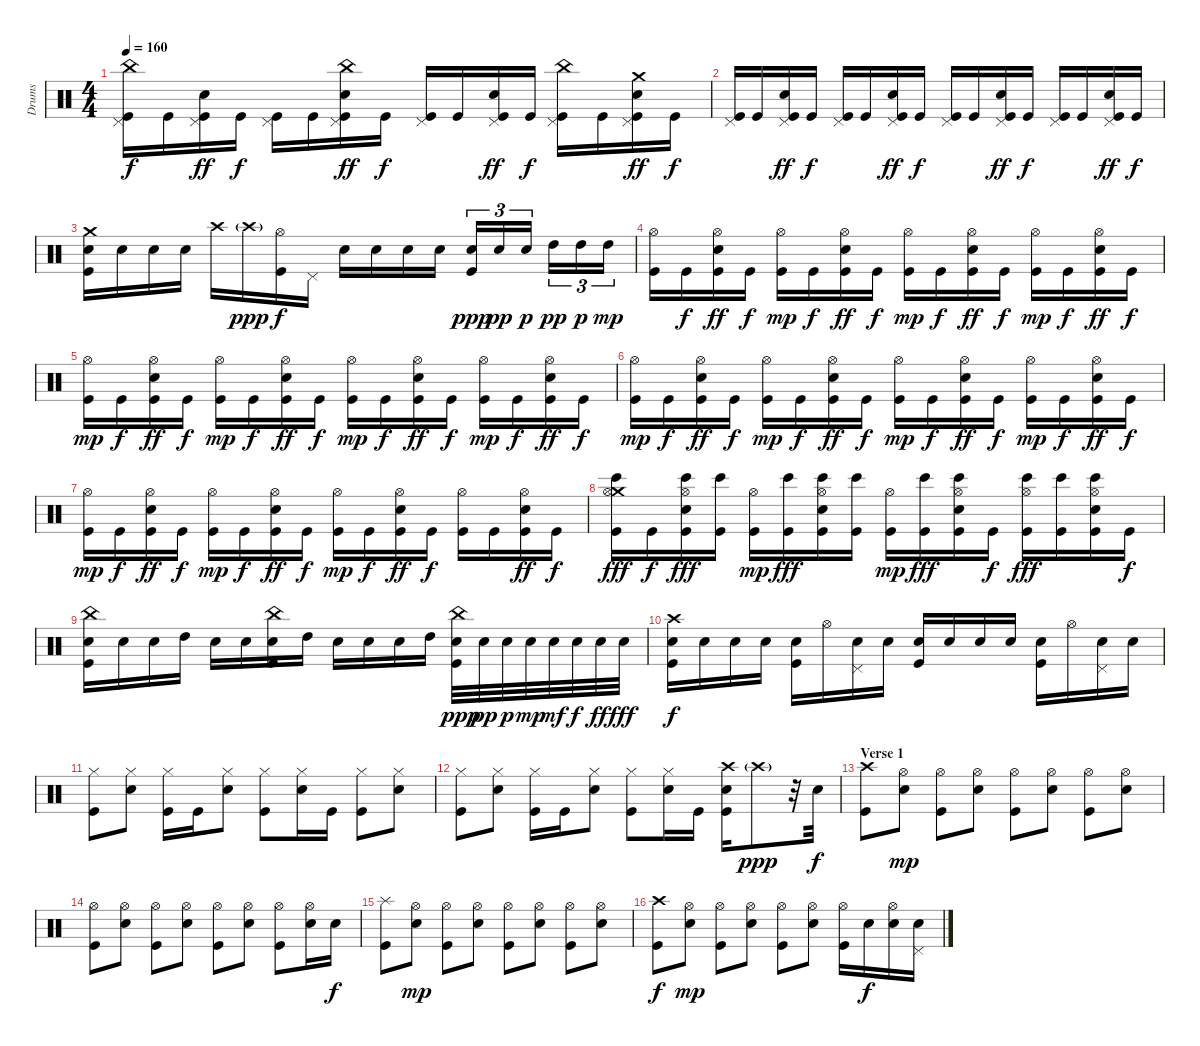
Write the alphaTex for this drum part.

\track ("Drums" "Drums") {instrument percussion}
\staff {score}
\articulation defaults
\ts (4 4)
\tempo 160
\clef neutral
\ks c
("China (hit)" "Pedal Hi-Hat (hit)" "Kick (hit)").16{dy f} "Kick (hit)".16 ("Pedal Hi-Hat (hit)" "Electric Snare (hit)" "Kick (hit)").16{dy ff} "Kick (hit)".16{dy f} ("Pedal Hi-Hat (hit)" "Kick (hit)").16 "Kick (hit)".16 ("China (hit)" "Pedal Hi-Hat (hit)" "Electric Snare (hit)" "Kick (hit)").16{dy ff} "Kick (hit)".16{dy f} ("Pedal Hi-Hat (hit)" "Kick (hit)").16 "Kick (hit)".16 ("Pedal Hi-Hat (hit)" "Electric Snare (hit)" "Kick (hit)").16{dy ff} "Kick (hit)".16{dy f} ("China (hit)" "Pedal Hi-Hat (hit)" "Kick (hit)").16 "Kick (hit)".16 ("Crash medium (hit)" "Pedal Hi-Hat (hit)" "Electric Snare (hit)" "Kick (hit)").16{dy ff} "Kick (hit)".16{dy f} |
("Pedal Hi-Hat (hit)" "Kick (hit)").16 "Kick (hit)".16 ("Pedal Hi-Hat (hit)" "Electric Snare (hit)" "Kick (hit)").16{dy ff} "Kick (hit)".16{dy f} ("Pedal Hi-Hat (hit)" "Kick (hit)").16 "Kick (hit)".16 ("Pedal Hi-Hat (hit)" "Electric Snare (hit)" "Kick (hit)").16{dy ff} "Kick (hit)".16{dy f} ("Pedal Hi-Hat (hit)" "Kick (hit)").16 "Kick (hit)".16 ("Pedal Hi-Hat (hit)" "Electric Snare (hit)" "Kick (hit)").16{dy ff} "Kick (hit)".16{dy f} ("Pedal Hi-Hat (hit)" "Kick (hit)").16 "Kick (hit)".16 ("Pedal Hi-Hat (hit)" "Electric Snare (hit)" "Kick (hit)").16{dy ff} "Kick (hit)".16{dy f} |
("Crash medium (hit)" "Electric Snare (hit)" "Kick (hit)").16 "Electric Snare (hit)".16 "Electric Snare (hit)".16 "Electric Snare (hit)".16 "Crash high (hit)".16 "Crash high (hit)"{g}.16{dy ppp} ("Hi-Hat (open)" "Kick (hit)").16{dy f} "Pedal Hi-Hat (hit)".16 "Electric Snare (hit)".16 "Electric Snare (hit)".16 "Electric Snare (hit)".16 "Electric Snare (hit)".16 ("Electric Snare (hit)" "Kick (hit)").16{tu (3 2) dy ppp} "Electric Snare (hit)".16{tu (3 2) dy pp} "Electric Snare (hit)".16{tu (3 2) dy p} "High Tom (hit)".16{tu (3 2) dy pp} "High Tom (hit)".16{tu (3 2) dy p} "High Tom (hit)".16{tu (3 2) dy mp} |
("Hi-Hat (open)" "Kick (hit)").16 "Kick (hit)".16{dy f} ("Hi-Hat (open)" "Electric Snare (hit)" "Kick (hit)").16{dy ff} "Kick (hit)".16{dy f} ("Hi-Hat (open)" "Kick (hit)").16{dy mp} "Kick (hit)".16{dy f} ("Hi-Hat (open)" "Electric Snare (hit)" "Kick (hit)").16{dy ff} "Kick (hit)".16{dy f} ("Hi-Hat (open)" "Kick (hit)").16{dy mp} "Kick (hit)".16{dy f} ("Hi-Hat (open)" "Electric Snare (hit)" "Kick (hit)").16{dy ff} "Kick (hit)".16{dy f} ("Hi-Hat (open)" "Kick (hit)").16{dy mp} "Kick (hit)".16{dy f} ("Hi-Hat (open)" "Electric Snare (hit)" "Kick (hit)").16{dy ff} "Kick (hit)".16{dy f} |
("Hi-Hat (open)" "Kick (hit)").16{dy mp} "Kick (hit)".16{dy f} ("Hi-Hat (open)" "Electric Snare (hit)" "Kick (hit)").16{dy ff} "Kick (hit)".16{dy f} ("Hi-Hat (open)" "Kick (hit)").16{dy mp} "Kick (hit)".16{dy f} ("Hi-Hat (open)" "Electric Snare (hit)" "Kick (hit)").16{dy ff} "Kick (hit)".16{dy f} ("Hi-Hat (open)" "Kick (hit)").16{dy mp} "Kick (hit)".16{dy f} ("Hi-Hat (open)" "Electric Snare (hit)" "Kick (hit)").16{dy ff} "Kick (hit)".16{dy f} ("Hi-Hat (open)" "Kick (hit)").16{dy mp} "Kick (hit)".16{dy f} ("Hi-Hat (open)" "Electric Snare (hit)" "Kick (hit)").16{dy ff} "Kick (hit)".16{dy f} |
("Hi-Hat (open)" "Kick (hit)").16{dy mp} "Kick (hit)".16{dy f} ("Hi-Hat (open)" "Electric Snare (hit)" "Kick (hit)").16{dy ff} "Kick (hit)".16{dy f} ("Hi-Hat (open)" "Kick (hit)").16{dy mp} "Kick (hit)".16{dy f} ("Hi-Hat (open)" "Electric Snare (hit)" "Kick (hit)").16{dy ff} "Kick (hit)".16{dy f} ("Hi-Hat (open)" "Kick (hit)").16{dy mp} "Kick (hit)".16{dy f} ("Hi-Hat (open)" "Electric Snare (hit)" "Kick (hit)").16{dy ff} "Kick (hit)".16{dy f} ("Hi-Hat (open)" "Kick (hit)").16{dy mp} "Kick (hit)".16{dy f} ("Hi-Hat (open)" "Electric Snare (hit)" "Kick (hit)").16{dy ff} "Kick (hit)".16{dy f} |
("Hi-Hat (open)" "Kick (hit)").16{dy mp} "Kick (hit)".16{dy f} ("Hi-Hat (open)" "Electric Snare (hit)" "Kick (hit)").16{dy ff} "Kick (hit)".16{dy f} ("Hi-Hat (open)" "Kick (hit)").16{dy mp} "Kick (hit)".16{dy f} ("Hi-Hat (open)" "Electric Snare (hit)" "Kick (hit)").16{dy ff} "Kick (hit)".16{dy f} ("Hi-Hat (open)" "Kick (hit)").16{dy mp} "Kick (hit)".16{dy f} ("Hi-Hat (open)" "Electric Snare (hit)" "Kick (hit)").16{dy ff} "Kick (hit)".16{dy f} ("Hi-Hat (open)" "Kick (hit)").16 "Kick (hit)".16 ("Hi-Hat (open)" "Electric Snare (hit)" "Kick (hit)").16{dy ff} "Kick (hit)".16{dy f} |
("Crash medium (hit)" "Hi-Hat (open)" "Bongo High (hit)" "Kick (hit)").16{dy fff} "Kick (hit)".16{dy f} ("Hi-Hat (open)" "Electric Snare (hit)" "Bongo High (hit)" "Kick (hit)").16{dy fff} ("Bongo High (hit)" "Kick (hit)").16 ("Hi-Hat (open)" "Kick (hit)").16{dy mp} ("Bongo High (hit)" "Kick (hit)").16{dy fff} ("Hi-Hat (open)" "Electric Snare (hit)" "Bongo High (hit)" "Kick (hit)").16 ("Bongo High (hit)" "Kick (hit)").16 ("Hi-Hat (open)" "Kick (hit)").16{dy mp} ("Bongo High (hit)" "Kick (hit)").16{dy fff} ("Hi-Hat (open)" "Electric Snare (hit)" "Bongo High (hit)" "Kick (hit)").16 "Kick (hit)".16{dy f} ("Hi-Hat (open)" "Bongo High (hit)" "Kick (hit)").16{dy fff} ("Bongo High (hit)" "Kick (hit)").16 ("Hi-Hat (open)" "Electric Snare (hit)" "Bongo High (hit)" "Kick (hit)").16 "Kick (hit)".16{dy f} |
("China (hit)" "Electric Snare (hit)" "Kick (hit)").16 "Electric Snare (hit)".16 "Electric Snare (hit)".16 "High Tom (hit)".16 "Electric Snare (hit)".16 "Electric Snare (hit)".16 ("China (hit)" "Electric Snare (hit)" "Kick (hit)").16 "High Tom (hit)".16 "Electric Snare (hit)".16 "Electric Snare (hit)".16 "Electric Snare (hit)".16 "High Tom (hit)".16 ("China (hit)" "Electric Snare (hit)" "Kick (hit)").32{dy ppp} "Electric Snare (hit)".32{dy pp} "Electric Snare (hit)".32{dy p} "Electric Snare (hit)".32{dy mp} "Electric Snare (hit)".32{dy mf} "Electric Snare (hit)".32{dy f} "Electric Snare (hit)".32{dy ff} "Electric Snare (hit)".32{dy fff} |
("Crash high (hit)" "Electric Snare (hit)" "Kick (hit)").16{dy f} "Electric Snare (hit)".16 "Electric Snare (hit)".16 "Electric Snare (hit)".16 ("Electric Snare (hit)" "Kick (hit)").16 "Hi-Hat (open)".16 ("Pedal Hi-Hat (hit)" "Electric Snare (hit)").16 "Electric Snare (hit)".16 ("Electric Snare (hit)" "Kick (hit)").16 "Electric Snare (hit)".16 "Electric Snare (hit)".16 "Electric Snare (hit)".16 ("Electric Snare (hit)" "Kick (hit)").16 "Hi-Hat (open)".16 ("Pedal Hi-Hat (hit)" "Electric Snare (hit)").16 "Electric Snare (hit)".16 |
("Hi-Hat (closed)" "Kick (hit)").8 ("Hi-Hat (closed)" "Electric Snare (hit)").8 ("Hi-Hat (closed)" "Kick (hit)").16 "Kick (hit)".16 ("Hi-Hat (closed)" "Electric Snare (hit)").8 ("Hi-Hat (closed)" "Kick (hit)").8 ("Hi-Hat (closed)" "Electric Snare (hit)").16 "Kick (hit)".16 ("Hi-Hat (closed)" "Kick (hit)").8 ("Hi-Hat (closed)" "Electric Snare (hit)").8 |
("Hi-Hat (closed)" "Kick (hit)").8 ("Hi-Hat (closed)" "Electric Snare (hit)").8 ("Hi-Hat (closed)" "Kick (hit)").16 "Kick (hit)".16 ("Hi-Hat (closed)" "Electric Snare (hit)").8 ("Hi-Hat (closed)" "Kick (hit)").8 ("Hi-Hat (closed)" "Electric Snare (hit)").16 "Kick (hit)".16 ("Crash high (hit)" "Electric Snare (hit)" "Kick (hit)").16 "Crash high (hit)"{g}.8{dy ppp} r.32 "Electric Snare (hit)".32{dy f} |
\section ("" "Verse 1")
("Crash high (hit)" "Kick (hit)").8 ("Hi-Hat (open)" "Electric Snare (hit)").8{dy mp} ("Hi-Hat (open)" "Kick (hit)").8 ("Hi-Hat (open)" "Electric Snare (hit)").8 ("Hi-Hat (open)" "Kick (hit)").8 ("Hi-Hat (open)" "Electric Snare (hit)").8 ("Hi-Hat (open)" "Kick (hit)").8 ("Hi-Hat (open)" "Electric Snare (hit)").8 |
("Hi-Hat (open)" "Kick (hit)").8 ("Hi-Hat (open)" "Electric Snare (hit)").8 ("Hi-Hat (open)" "Kick (hit)").8 ("Hi-Hat (open)" "Electric Snare (hit)").8 ("Hi-Hat (open)" "Kick (hit)").8 ("Hi-Hat (open)" "Electric Snare (hit)").8 ("Hi-Hat (open)" "Kick (hit)").8 ("Hi-Hat (open)" "Electric Snare (hit)").16 "Electric Snare (hit)".16{dy f} |
("Splash (hit)" "Kick (hit)").8 ("Hi-Hat (open)" "Electric Snare (hit)").8{dy mp} ("Hi-Hat (open)" "Kick (hit)").8 ("Hi-Hat (open)" "Electric Snare (hit)").8 ("Hi-Hat (open)" "Kick (hit)").8 ("Hi-Hat (open)" "Electric Snare (hit)").8 ("Hi-Hat (open)" "Kick (hit)").8 ("Hi-Hat (open)" "Electric Snare (hit)").8 |
("Crash high (hit)" "Kick (hit)").8{dy f} ("Hi-Hat (open)" "Electric Snare (hit)").8{dy mp} ("Hi-Hat (open)" "Kick (hit)").8 ("Hi-Hat (open)" "Electric Snare (hit)").8 ("Hi-Hat (open)" "Kick (hit)").8 ("Hi-Hat (open)" "Electric Snare (hit)").8 ("Hi-Hat (open)" "Kick (hit)").16 "Electric Snare (hit)".16{dy f} ("Hi-Hat (open)" "Electric Snare (hit)").16 ("Pedal Hi-Hat (hit)" "Electric Snare (hit)").16
